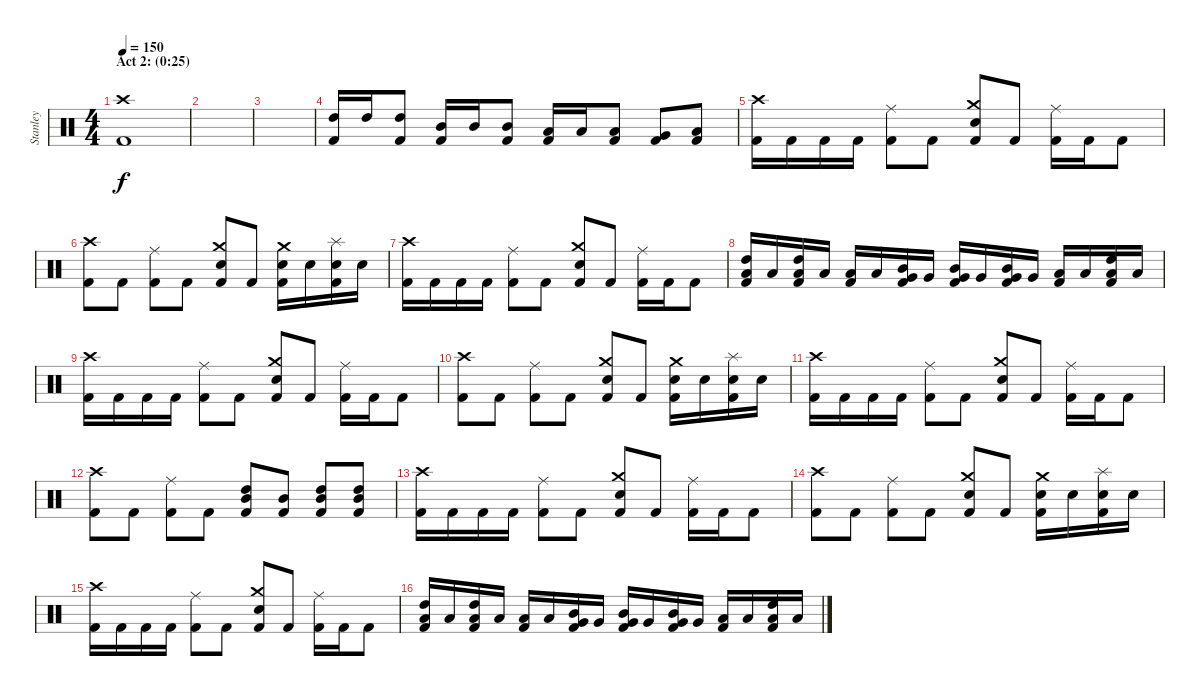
\track ("Stanley" "Stanley") {instrument percussion}
\staff {score}
\articulation defaults
\ts (4 4)
\section ("" "Act 2: (0:25)")
\tempo 150
\clef neutral
\ks c
("Crash high (hit)" "Kick (hit) 2").1{dy f} |
|
|
("High Tom (hit)" "Kick (hit) 2").16 "High Tom (hit)".16 ("High Tom (hit)" "Kick (hit) 2").8 ("Mid Tom (hit)" "Kick (hit) 2").16 "Mid Tom (hit)".16 ("Mid Tom (hit)" "Kick (hit) 2").8 ("Low Tom (hit)" "Kick (hit) 2").16 "Low Tom (hit)".16 ("Low Tom (hit)" "Kick (hit) 2").8 ("Very Low Tom (hit)" "Kick (hit) 2").8 ("Low Floor Tom (hit)" "Kick (hit) 2").8 |
("Crash high (hit)" "Kick (hit) 2").16 "Kick (hit) 2".16 "Kick (hit) 2".16 "Kick (hit) 2".16 ("Ride (middle)" "Kick (hit) 2").8 "Kick (hit) 2".8 ("Crash medium (hit)" "Electric Snare (hit)" "Kick (hit) 2").8 "Kick (hit) 2".8 ("Ride (middle)" "Kick (hit) 2").16 "Kick (hit) 2".16 "Kick (hit) 2".8 |
("Crash high (hit)" "Kick (hit) 2").8 "Kick (hit) 2".8 ("Ride (middle)" "Kick (hit) 2").8 "Kick (hit) 2".8 ("Crash medium (hit)" "Electric Snare (hit)" "Kick (hit) 2").8 "Kick (hit) 2".8 ("Crash medium (hit)" "Electric Snare (hit)" "Kick (hit) 2").16 "Electric Snare (hit)".16 ("Splash (hit)" "Electric Snare (hit)" "Kick (hit) 2").16 "Electric Snare (hit)".16 |
("Crash high (hit)" "Kick (hit) 2").16 "Kick (hit) 2".16 "Kick (hit) 2".16 "Kick (hit) 2".16 ("Ride (middle)" "Kick (hit) 2").8 "Kick (hit) 2".8 ("Crash medium (hit)" "Electric Snare (hit)" "Kick (hit) 2").8 "Kick (hit) 2".8 ("Ride (middle)" "Kick (hit) 2").16 "Kick (hit) 2".16 "Kick (hit) 2".8 |
("High Tom (hit)" "Low Tom (hit)" "Kick (hit) 2").16 "Low Tom (hit)".16 ("High Tom (hit)" "Low Tom (hit)" "Kick (hit) 2").16 "Low Tom (hit)".16 ("Low Tom (hit)" "Kick (hit) 2").16 "Low Tom (hit)".16 ("Mid Tom (hit)" "Very Low Tom (hit)" "Kick (hit) 2").16 "Very Low Tom (hit)".16 ("Mid Tom (hit)" "Very Low Tom (hit)" "Kick (hit) 2").16 "Very Low Tom (hit)".16 ("Mid Tom (hit)" "Very Low Tom (hit)" "Kick (hit) 2").16 "Very Low Tom (hit)".16 ("Low Floor Tom (hit)" "Kick (hit) 2").16 "Low Floor Tom (hit)".16 ("High Tom (hit)" "Low Floor Tom (hit)" "Kick (hit) 2").16 "Low Floor Tom (hit)".16 |
("Crash high (hit)" "Kick (hit) 2").16 "Kick (hit) 2".16 "Kick (hit) 2".16 "Kick (hit) 2".16 ("Ride (middle)" "Kick (hit) 2").8 "Kick (hit) 2".8 ("Crash medium (hit)" "Electric Snare (hit)" "Kick (hit) 2").8 "Kick (hit) 2".8 ("Ride (middle)" "Kick (hit) 2").16 "Kick (hit) 2".16 "Kick (hit) 2".8 |
("Crash high (hit)" "Kick (hit) 2").8 "Kick (hit) 2".8 ("Ride (middle)" "Kick (hit) 2").8 "Kick (hit) 2".8 ("Crash medium (hit)" "Electric Snare (hit)" "Kick (hit) 2").8 "Kick (hit) 2".8 ("Crash medium (hit)" "Electric Snare (hit)" "Kick (hit) 2").16 "Electric Snare (hit)".16 ("Splash (hit)" "Electric Snare (hit)" "Kick (hit) 2").16 "Electric Snare (hit)".16 |
("Crash high (hit)" "Kick (hit) 2").16 "Kick (hit) 2".16 "Kick (hit) 2".16 "Kick (hit) 2".16 ("Ride (middle)" "Kick (hit) 2").8 "Kick (hit) 2".8 ("Crash medium (hit)" "Electric Snare (hit)" "Kick (hit) 2").8 "Kick (hit) 2".8 ("Ride (middle)" "Kick (hit) 2").16 "Kick (hit) 2".16 "Kick (hit) 2".8 |
("Crash high (hit)" "Kick (hit) 2").8 "Kick (hit) 2".8 ("Ride (middle)" "Kick (hit) 2").8 "Kick (hit) 2".8 ("Mid Tom (hit)" "High Tom (hit)" "Kick (hit) 2").8 ("Mid Tom (hit)" "Kick (hit) 2").8 ("Mid Tom (hit)" "High Tom (hit)" "Kick (hit) 2").8 ("Mid Tom (hit)" "High Tom (hit)" "Kick (hit) 2").8 |
("Crash high (hit)" "Kick (hit) 2").16 "Kick (hit) 2".16 "Kick (hit) 2".16 "Kick (hit) 2".16 ("Ride (middle)" "Kick (hit) 2").8 "Kick (hit) 2".8 ("Crash medium (hit)" "Electric Snare (hit)" "Kick (hit) 2").8 "Kick (hit) 2".8 ("Ride (middle)" "Kick (hit) 2").16 "Kick (hit) 2".16 "Kick (hit) 2".8 |
("Crash high (hit)" "Kick (hit) 2").8 "Kick (hit) 2".8 ("Ride (middle)" "Kick (hit) 2").8 "Kick (hit) 2".8 ("Crash medium (hit)" "Electric Snare (hit)" "Kick (hit) 2").8 "Kick (hit) 2".8 ("Crash medium (hit)" "Electric Snare (hit)" "Kick (hit) 2").16 "Electric Snare (hit)".16 ("Splash (hit)" "Electric Snare (hit)" "Kick (hit) 2").16 "Electric Snare (hit)".16 |
("Crash high (hit)" "Kick (hit) 2").16 "Kick (hit) 2".16 "Kick (hit) 2".16 "Kick (hit) 2".16 ("Ride (middle)" "Kick (hit) 2").8 "Kick (hit) 2".8 ("Crash medium (hit)" "Electric Snare (hit)" "Kick (hit) 2").8 "Kick (hit) 2".8 ("Ride (middle)" "Kick (hit) 2").16 "Kick (hit) 2".16 "Kick (hit) 2".8 |
("High Tom (hit)" "Low Tom (hit)" "Kick (hit) 2").16 "Low Tom (hit)".16 ("High Tom (hit)" "Low Tom (hit)" "Kick (hit) 2").16 "Low Tom (hit)".16 ("Low Tom (hit)" "Kick (hit) 2").16 "Low Tom (hit)".16 ("Mid Tom (hit)" "Very Low Tom (hit)" "Kick (hit) 2").16 "Very Low Tom (hit)".16 ("Mid Tom (hit)" "Very Low Tom (hit)" "Kick (hit) 2").16 "Very Low Tom (hit)".16 ("Mid Tom (hit)" "Very Low Tom (hit)" "Kick (hit) 2").16 "Very Low Tom (hit)".16 ("Low Floor Tom (hit)" "Kick (hit) 2").16 "Low Floor Tom (hit)".16 ("High Tom (hit)" "Low Floor Tom (hit)" "Kick (hit) 2").16 "Low Floor Tom (hit)".16
